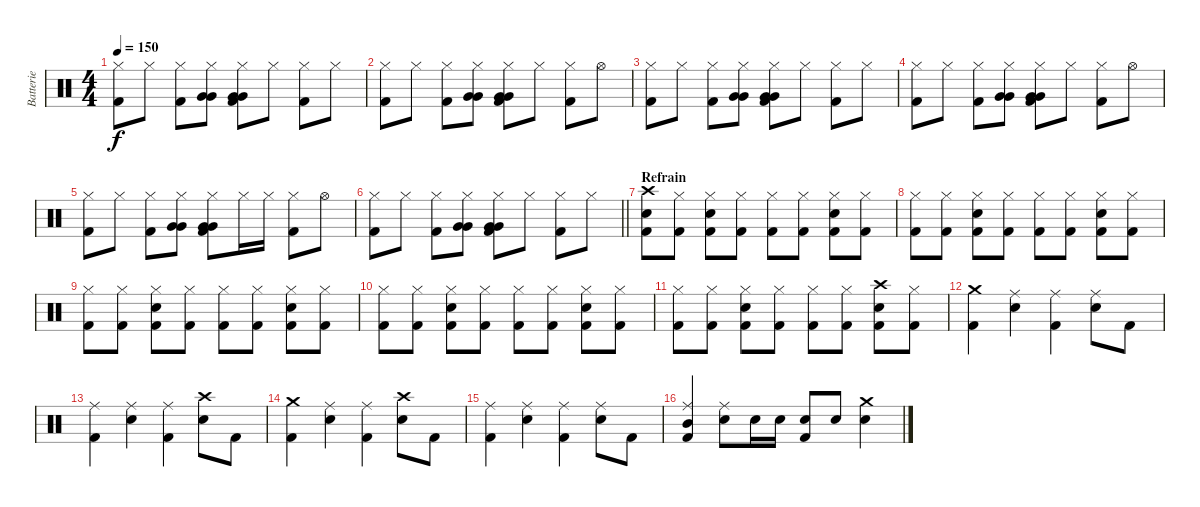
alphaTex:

\track ("Batterie" "Batterie") {instrument percussion}
\staff {score}
\articulation defaults
\ts (4 4)
\tempo 150
\clef neutral
\ks c
("Hi-Hat (closed)" "Kick (hit) 2").8{dy f} "Hi-Hat (closed)".8 ("Hi-Hat (closed)" "Kick (hit) 2").8 ("Hi-Hat (closed)" "Very Low Tom (hit)" "Very Low Tom (hit)").8 ("Hi-Hat (closed)" "Very Low Tom (hit)" "Kick (hit) 2" "Very Low Tom (hit)").8 "Hi-Hat (closed)".8 ("Hi-Hat (closed)" "Kick (hit) 2").8 "Hi-Hat (closed)".8 |
("Hi-Hat (closed)" "Kick (hit) 2").8 "Hi-Hat (closed)".8 ("Hi-Hat (closed)" "Kick (hit) 2").8 ("Hi-Hat (closed)" "Very Low Tom (hit)" "Very Low Tom (hit)").8 ("Hi-Hat (closed)" "Very Low Tom (hit)" "Kick (hit) 2" "Very Low Tom (hit)").8 "Hi-Hat (closed)".8 ("Hi-Hat (closed)" "Kick (hit) 2").8 "Hi-Hat (open)".8 |
("Hi-Hat (closed)" "Kick (hit) 2").8 "Hi-Hat (closed)".8 ("Hi-Hat (closed)" "Kick (hit) 2").8 ("Hi-Hat (closed)" "Very Low Tom (hit)" "Very Low Tom (hit)").8 ("Hi-Hat (closed)" "Very Low Tom (hit)" "Kick (hit) 2" "Very Low Tom (hit)").8 "Hi-Hat (closed)".8 ("Hi-Hat (closed)" "Kick (hit) 2").8 "Hi-Hat (closed)".8 |
("Hi-Hat (closed)" "Kick (hit) 2").8 "Hi-Hat (closed)".8 ("Hi-Hat (closed)" "Kick (hit) 2").8 ("Hi-Hat (closed)" "Very Low Tom (hit)" "Very Low Tom (hit)").8 ("Hi-Hat (closed)" "Very Low Tom (hit)" "Kick (hit) 2" "Very Low Tom (hit)").8 "Hi-Hat (closed)".8 ("Hi-Hat (closed)" "Kick (hit) 2").8 "Hi-Hat (open)".8 |
("Hi-Hat (closed)" "Kick (hit) 2").8 "Hi-Hat (closed)".8 ("Hi-Hat (closed)" "Kick (hit) 2").8 ("Hi-Hat (closed)" "Very Low Tom (hit)" "Very Low Tom (hit)").8 ("Hi-Hat (closed)" "Very Low Tom (hit)" "Kick (hit) 2" "Very Low Tom (hit)").8 "Hi-Hat (closed)".16 "Hi-Hat (closed)".16 ("Hi-Hat (closed)" "Kick (hit) 2").8 "Hi-Hat (open)".8 |
\barLineRight lightlight
("Hi-Hat (closed)" "Kick (hit) 2").8 "Hi-Hat (closed)".8 ("Hi-Hat (closed)" "Kick (hit) 2").8 ("Hi-Hat (closed)" "Very Low Tom (hit)" "Very Low Tom (hit)").8 ("Hi-Hat (closed)" "Very Low Tom (hit)" "Kick (hit) 2" "Very Low Tom (hit)").8 "Hi-Hat (closed)".8 ("Hi-Hat (closed)" "Kick (hit) 2").8 "Hi-Hat (closed)".8 |
\section ("" "Refrain")
("Crash high (hit)" "Kick (hit) 2" "Electric Snare (hit)").8 ("Hi-Hat (closed)" "Kick (hit) 2").8 ("Hi-Hat (closed)" "Kick (hit) 2" "Electric Snare (hit)").8 ("Hi-Hat (closed)" "Kick (hit) 2").8 ("Hi-Hat (closed)" "Kick (hit) 2").8 ("Hi-Hat (closed)" "Kick (hit) 2").8 ("Hi-Hat (closed)" "Kick (hit) 2" "Electric Snare (hit)").8 ("Hi-Hat (closed)" "Kick (hit) 2").8 |
("Hi-Hat (closed)" "Kick (hit) 2").8 ("Hi-Hat (closed)" "Kick (hit) 2").8 ("Hi-Hat (closed)" "Kick (hit) 2" "Electric Snare (hit)").8 ("Hi-Hat (closed)" "Kick (hit) 2").8 ("Hi-Hat (closed)" "Kick (hit) 2").8 ("Hi-Hat (closed)" "Kick (hit) 2").8 ("Hi-Hat (closed)" "Kick (hit) 2" "Electric Snare (hit)").8 ("Hi-Hat (closed)" "Kick (hit) 2").8 |
("Hi-Hat (closed)" "Kick (hit) 2").8 ("Hi-Hat (closed)" "Kick (hit) 2").8 ("Hi-Hat (closed)" "Kick (hit) 2" "Electric Snare (hit)").8 ("Hi-Hat (closed)" "Kick (hit) 2").8 ("Hi-Hat (closed)" "Kick (hit) 2").8 ("Hi-Hat (closed)" "Kick (hit) 2").8 ("Hi-Hat (closed)" "Kick (hit) 2" "Electric Snare (hit)").8 ("Hi-Hat (closed)" "Kick (hit) 2").8 |
("Hi-Hat (closed)" "Kick (hit) 2").8 ("Hi-Hat (closed)" "Kick (hit) 2").8 ("Hi-Hat (closed)" "Kick (hit) 2" "Electric Snare (hit)").8 ("Hi-Hat (closed)" "Kick (hit) 2").8 ("Hi-Hat (closed)" "Kick (hit) 2").8 ("Hi-Hat (closed)" "Kick (hit) 2").8 ("Hi-Hat (closed)" "Kick (hit) 2" "Electric Snare (hit)").8 ("Hi-Hat (closed)" "Kick (hit) 2").8 |
("Hi-Hat (closed)" "Kick (hit) 2").8 ("Hi-Hat (closed)" "Kick (hit) 2").8 ("Hi-Hat (closed)" "Kick (hit) 2" "Electric Snare (hit)").8 ("Hi-Hat (closed)" "Kick (hit) 2").8 ("Hi-Hat (closed)" "Kick (hit) 2").8 ("Hi-Hat (closed)" "Kick (hit) 2").8 ("Crash high (hit)" "Kick (hit) 2" "Electric Snare (hit)").8 ("Hi-Hat (closed)" "Kick (hit) 2").8 |
("Crash medium (hit)" "Kick (hit) 2").4 ("Ride (middle)" "Electric Snare (hit)").4 ("Ride (middle)" "Kick (hit) 2").4 ("Ride (middle)" "Electric Snare (hit)").8 "Kick (hit) 2".8 |
("Ride (middle)" "Kick (hit) 2").4 ("Ride (middle)" "Electric Snare (hit)").4 ("Ride (middle)" "Kick (hit) 2").4 ("Crash high (hit)" "Electric Snare (hit)").8 "Kick (hit) 2".8 |
("Crash medium (hit)" "Kick (hit) 2").4 ("Ride (middle)" "Electric Snare (hit)").4 ("Ride (middle)" "Kick (hit) 2").4 ("Crash high (hit)" "Electric Snare (hit)").8 "Kick (hit) 2".8 |
("Ride (middle)" "Kick (hit) 2").4 ("Ride (middle)" "Electric Snare (hit)").4 ("Ride (middle)" "Kick (hit) 2").4 ("Ride (middle)" "Electric Snare (hit)").8 "Kick (hit) 2".8 |
("Ride (middle)" "Kick (hit) 2" "Mid Tom (hit)").4 ("Ride (middle)" "Electric Snare (hit)").8 "Electric Snare (hit)".16 "Electric Snare (hit)".16 ("Electric Snare (hit)" "Kick (hit) 2").8 "Electric Snare (hit)".8 ("Crash medium (hit)" "Electric Snare (hit)").4
